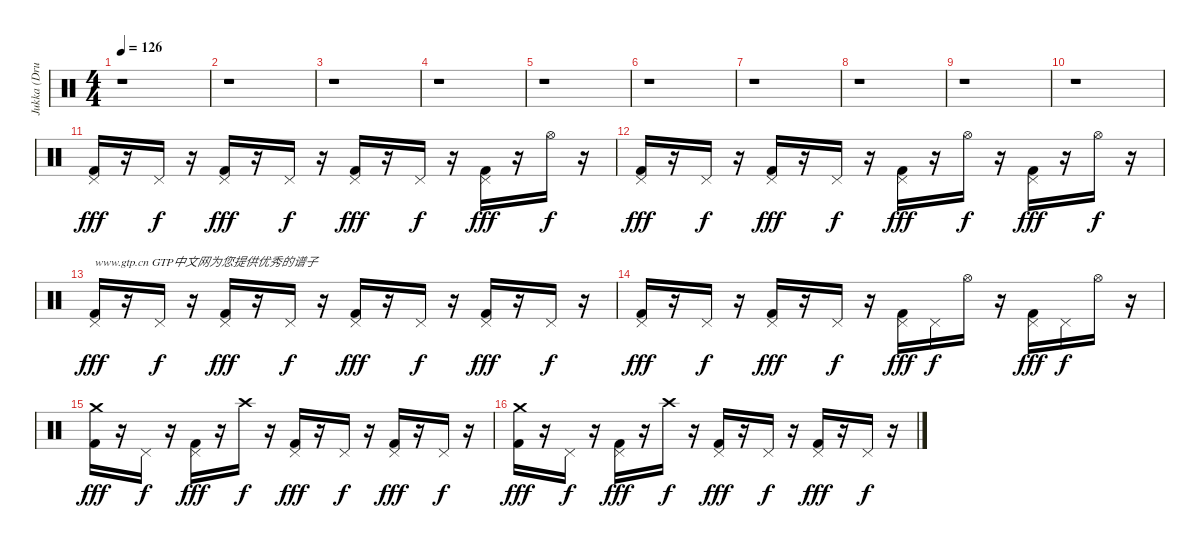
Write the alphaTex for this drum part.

\track ("Jukka (Drums)" "Jukka (Dru") {instrument percussion}
\staff {score}
\articulation defaults
\ts (4 4)
\tempo 126
\clef neutral
\ks c
r.1{dy fff} |
r.1 |
r.1 |
r.1 |
r.1 |
r.1 |
r.1 |
r.1 |
r.1 |
r.1 |
("Kick (hit) 2" "Pedal Hi-Hat (hit)").16 r.16 "Pedal Hi-Hat (hit)".16{dy f} r.16 ("Kick (hit) 2" "Pedal Hi-Hat (hit)").16{dy fff} r.16 "Pedal Hi-Hat (hit)".16{dy f} r.16 ("Kick (hit) 2" "Pedal Hi-Hat (hit)").16{dy fff} r.16 "Pedal Hi-Hat (hit)".16{dy f} r.16 ("Kick (hit) 2" "Pedal Hi-Hat (hit)").16{dy fff} r.16 "Hi-Hat (open)".16{dy f} r.16 |
("Kick (hit) 2" "Pedal Hi-Hat (hit)").16{dy fff} r.16 "Pedal Hi-Hat (hit)".16{dy f} r.16 ("Kick (hit) 2" "Pedal Hi-Hat (hit)").16{dy fff} r.16 "Pedal Hi-Hat (hit)".16{dy f} r.16 ("Kick (hit) 2" "Pedal Hi-Hat (hit)").16{dy fff} r.16 "Hi-Hat (open)".16{dy f} r.16 ("Kick (hit) 2" "Pedal Hi-Hat (hit)").16{dy fff} r.16 "Hi-Hat (open)".16{dy f} r.16 |
("Kick (hit) 2" "Pedal Hi-Hat (hit)").16{txt "www.gtp.cn GTP中文网为您提供优秀的谱子" dy fff} r.16 "Pedal Hi-Hat (hit)".16{dy f} r.16 ("Kick (hit) 2" "Pedal Hi-Hat (hit)").16{dy fff} r.16 "Pedal Hi-Hat (hit)".16{dy f} r.16 ("Kick (hit) 2" "Pedal Hi-Hat (hit)").16{dy fff} r.16 "Pedal Hi-Hat (hit)".16{dy f} r.16 ("Kick (hit) 2" "Pedal Hi-Hat (hit)").16{dy fff} r.16 "Pedal Hi-Hat (hit)".16{dy f} r.16 |
("Kick (hit) 2" "Pedal Hi-Hat (hit)").16{dy fff} r.16 "Pedal Hi-Hat (hit)".16{dy f} r.16 ("Kick (hit) 2" "Pedal Hi-Hat (hit)").16{dy fff} r.16 "Pedal Hi-Hat (hit)".16{dy f} r.16 ("Kick (hit) 2" "Pedal Hi-Hat (hit)").16{dy fff} "Pedal Hi-Hat (hit)".16{dy f} "Hi-Hat (open)".16 r.16 ("Kick (hit) 2" "Pedal Hi-Hat (hit)").16{dy fff} "Pedal Hi-Hat (hit)".16{dy f} "Hi-Hat (open)".16 r.16 |
("Kick (hit) 2" "Crash medium (hit)").16{dy fff} r.16 "Pedal Hi-Hat (hit)".16{dy f} r.16 ("Kick (hit) 2" "Pedal Hi-Hat (hit)").16{dy fff} r.16 "Crash high (hit)".16{dy f} r.16 ("Kick (hit) 2" "Pedal Hi-Hat (hit)").16{dy fff} r.16 "Pedal Hi-Hat (hit)".16{dy f} r.16 ("Kick (hit) 2" "Pedal Hi-Hat (hit)").16{dy fff} r.16 "Pedal Hi-Hat (hit)".16{dy f} r.16 |
("Kick (hit) 2" "Crash medium (hit)").16{dy fff} r.16 "Pedal Hi-Hat (hit)".16{dy f} r.16 ("Kick (hit) 2" "Pedal Hi-Hat (hit)").16{dy fff} r.16 "Crash high (hit)".16{dy f} r.16 ("Kick (hit) 2" "Pedal Hi-Hat (hit)").16{dy fff} r.16 "Pedal Hi-Hat (hit)".16{dy f} r.16 ("Kick (hit) 2" "Pedal Hi-Hat (hit)").16{dy fff} r.16 "Pedal Hi-Hat (hit)".16{dy f} r.16
